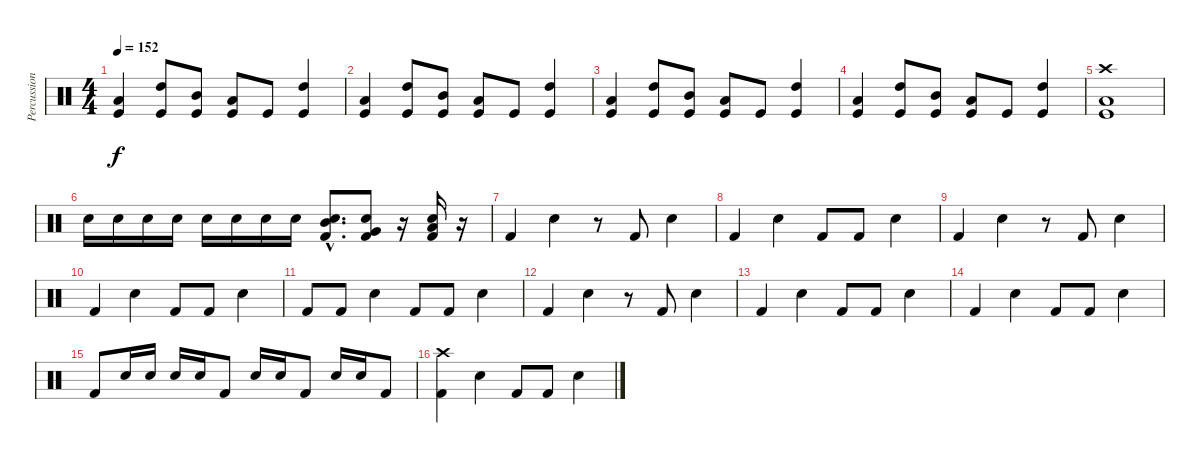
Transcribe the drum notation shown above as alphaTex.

\track ("Percussion" "Percussion") {instrument percussion}
\staff {score}
\articulation defaults
\ts (4 4)
\tempo 152
\clef neutral
\ks c
("Low Floor Tom (hit)" "Kick (hit)").4{dy f} ("High Tom (hit)" "Kick (hit)").8 ("Mid Tom (hit)" "Kick (hit)").8 ("Low Tom (hit)" "Kick (hit)").8 "Kick (hit)".8 ("High Tom (hit)" "Kick (hit)").4 |
("Low Floor Tom (hit)" "Kick (hit)").4 ("High Tom (hit)" "Kick (hit)").8 ("Mid Tom (hit)" "Kick (hit)").8 ("Low Tom (hit)" "Kick (hit)").8 "Kick (hit)".8 ("High Tom (hit)" "Kick (hit)").4 |
("Low Floor Tom (hit)" "Kick (hit)").4 ("High Tom (hit)" "Kick (hit)").8 ("Mid Tom (hit)" "Kick (hit)").8 ("Low Tom (hit)" "Kick (hit)").8 "Kick (hit)".8 ("High Tom (hit)" "Kick (hit)").4 |
("Low Floor Tom (hit)" "Kick (hit)").4 ("High Tom (hit)" "Kick (hit)").8 ("Mid Tom (hit)" "Kick (hit)").8 ("Low Tom (hit)" "Kick (hit)").8 "Kick (hit)".8 ("High Tom (hit)" "Kick (hit)").4 |
("Crash high (hit)" "Low Floor Tom (hit)" "Kick (hit)").1 |
"Snare (hit) 2".16 "Snare (hit) 2".16 "Snare (hit) 2".16 "Snare (hit) 2".16 "Snare (hit) 2".16 "Snare (hit) 2".16 "Snare (hit) 2".16 "Snare (hit) 2".16 ("Snare (hit) 2"{hac} "Kick (hit) 2"{hac} "Mid Tom (hit)"{hac}).8{d} ("Snare (hit) 2" "Kick (hit) 2" "Very Low Tom (hit)").8 r.16 ("Snare (hit) 2" "Kick (hit) 2" "Low Floor Tom (hit)").16 r.16 |
"Kick (hit) 2".4 "Electric Snare (hit)".4 r.8 "Kick (hit) 2".8 "Electric Snare (hit)".4 |
"Kick (hit) 2".4 "Electric Snare (hit)".4 "Kick (hit) 2".8 "Kick (hit) 2".8 "Electric Snare (hit)".4 |
"Kick (hit) 2".4 "Electric Snare (hit)".4 r.8 "Kick (hit) 2".8 "Electric Snare (hit)".4 |
"Kick (hit) 2".4 "Electric Snare (hit)".4 "Kick (hit) 2".8 "Kick (hit) 2".8 "Electric Snare (hit)".4 |
"Kick (hit) 2".8 "Kick (hit) 2".8 "Electric Snare (hit)".4 "Kick (hit) 2".8 "Kick (hit) 2".8 "Electric Snare (hit)".4 |
"Kick (hit) 2".4 "Electric Snare (hit)".4 r.8 "Kick (hit) 2".8 "Electric Snare (hit)".4 |
"Kick (hit) 2".4 "Electric Snare (hit)".4 "Kick (hit) 2".8 "Kick (hit) 2".8 "Electric Snare (hit)".4 |
"Kick (hit) 2".4 "Electric Snare (hit)".4 "Kick (hit) 2".8 "Kick (hit) 2".8 "Electric Snare (hit)".4 |
"Kick (hit) 2".8 "Snare (hit) 2".16 "Snare (hit) 2".16 "Snare (hit) 2".16 "Snare (hit) 2".16 "Kick (hit) 2".8 "Snare (hit) 2".16 "Snare (hit) 2".16 "Kick (hit) 2".8 "Snare (hit) 2".16 "Snare (hit) 2".16 "Kick (hit) 2".8 |
("Kick (hit) 2" "Crash high (hit)").4 "Snare (hit) 2".4 "Kick (hit) 2".8 "Kick (hit) 2".8 "Snare (hit) 2".4
